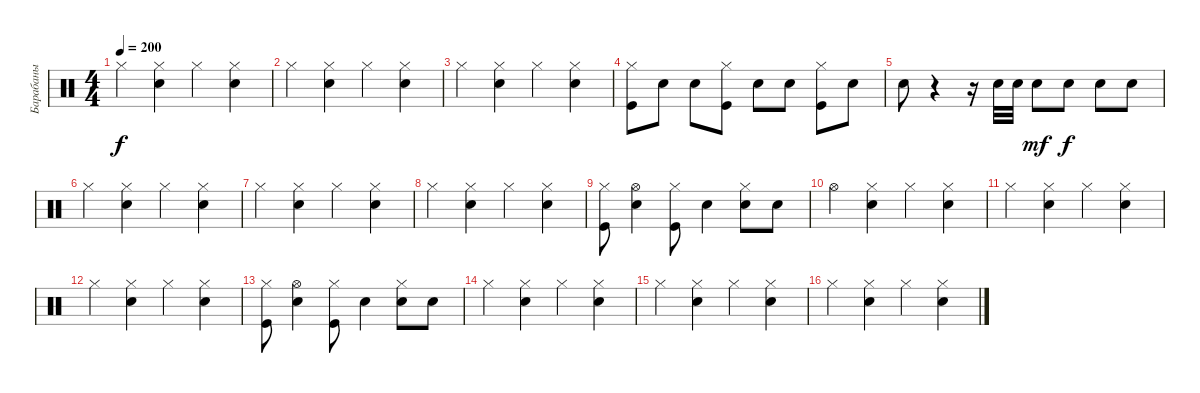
\track ("Барабаны" "Барабаны") {instrument percussion}
\staff {score}
\articulation defaults
\ts (4 4)
\tempo 200
\clef neutral
\ks c "Hi-Hat (closed)".4{dy f}
("Snare (hit) 2" "Hi-Hat (closed)").4 "Hi-Hat (closed)".4 ("Snare (hit) 2" "Hi-Hat (closed)").4 |
"Hi-Hat (closed)".4 ("Snare (hit) 2" "Hi-Hat (closed)").4 "Hi-Hat (closed)".4 ("Snare (hit) 2" "Hi-Hat (closed)").4 |
"Hi-Hat (closed)".4 ("Snare (hit) 2" "Hi-Hat (closed)").4 "Hi-Hat (closed)".4 ("Snare (hit) 2" "Hi-Hat (closed)").4 |
("Hi-Hat (closed)" "Kick (hit)").8 "Electric Snare (hit)".8 "Electric Snare (hit)".8 ("Hi-Hat (closed)" "Kick (hit)").8 "Electric Snare (hit)".8 "Electric Snare (hit)".8 ("Hi-Hat (closed)" "Kick (hit)").8 "Electric Snare (hit)".8 |
"Electric Snare (hit)".8 r.4 r.16 "Electric Snare (hit)".32 "Electric Snare (hit)".32 "Electric Snare (hit)".8{dy mf} "Electric Snare (hit)".8{dy f} "Electric Snare (hit)".8 "Electric Snare (hit)".8 |
"Hi-Hat (closed)".4 ("Snare (hit) 2" "Hi-Hat (closed)").4 "Hi-Hat (closed)".4 ("Snare (hit) 2" "Hi-Hat (closed)").4 |
"Hi-Hat (closed)".4 ("Snare (hit) 2" "Hi-Hat (closed)").4 "Hi-Hat (closed)".4 ("Snare (hit) 2" "Hi-Hat (closed)").4 |
"Hi-Hat (closed)".4 ("Snare (hit) 2" "Hi-Hat (closed)").4 "Hi-Hat (closed)".4 ("Snare (hit) 2" "Hi-Hat (closed)").4 |
("Kick (hit)" "Hi-Hat (closed)").8 ("Hi-Hat (open)" "Electric Snare (hit)").4 ("Kick (hit)" "Hi-Hat (closed)").8 "Electric Snare (hit)".4 ("Electric Snare (hit)" "Hi-Hat (closed)").8 "Electric Snare (hit)".8 |
"Hi-Hat (open)".4 ("Snare (hit) 2" "Hi-Hat (closed)").4 "Hi-Hat (closed)".4 ("Snare (hit) 2" "Hi-Hat (closed)").4 |
"Hi-Hat (closed)".4 ("Snare (hit) 2" "Hi-Hat (closed)").4 "Hi-Hat (closed)".4 ("Snare (hit) 2" "Hi-Hat (closed)").4 |
"Hi-Hat (closed)".4 ("Snare (hit) 2" "Hi-Hat (closed)").4 "Hi-Hat (closed)".4 ("Snare (hit) 2" "Hi-Hat (closed)").4 |
("Kick (hit)" "Hi-Hat (closed)").8 ("Hi-Hat (open)" "Electric Snare (hit)").4 ("Kick (hit)" "Hi-Hat (closed)").8 "Electric Snare (hit)".4 ("Electric Snare (hit)" "Hi-Hat (closed)").8 "Electric Snare (hit)".8 |
"Hi-Hat (closed)".4 ("Snare (hit) 2" "Hi-Hat (closed)").4 "Hi-Hat (closed)".4 ("Snare (hit) 2" "Hi-Hat (closed)").4 |
"Hi-Hat (closed)".4 ("Snare (hit) 2" "Hi-Hat (closed)").4 "Hi-Hat (closed)".4 ("Snare (hit) 2" "Hi-Hat (closed)").4 |
"Hi-Hat (closed)".4 ("Snare (hit) 2" "Hi-Hat (closed)").4 "Hi-Hat (closed)".4 ("Snare (hit) 2" "Hi-Hat (closed)").4
